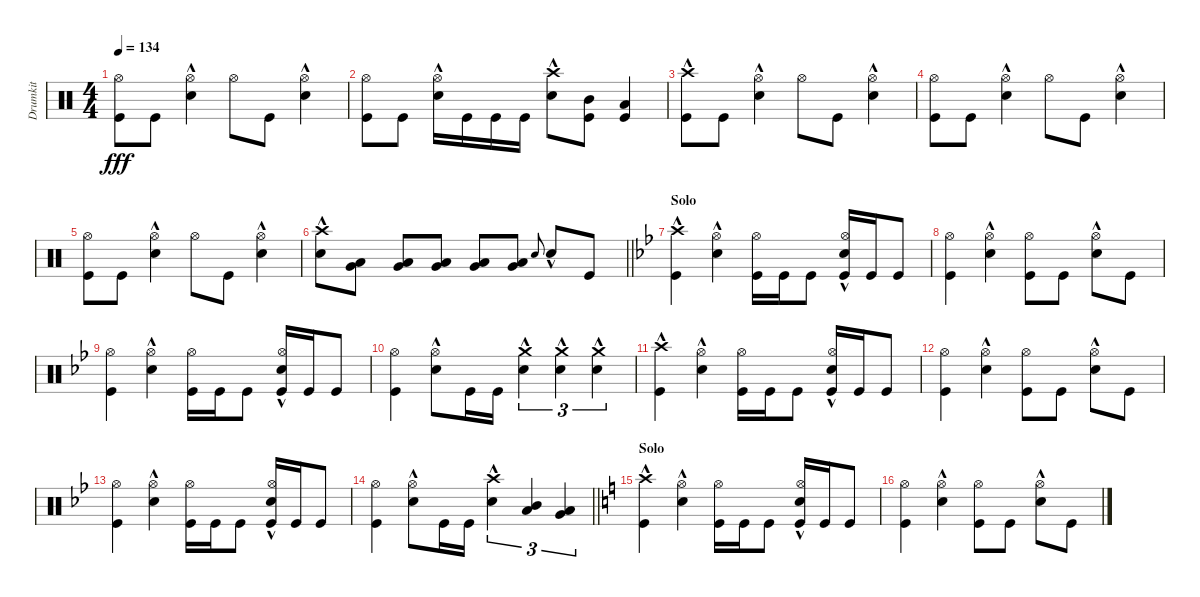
\track ("Drumkit" "Drumkit") {instrument percussion}
\staff {score}
\articulation defaults
\ts (4 4)
\tempo 134
\clef neutral
\ks c
("Kick (hit)" "Hi-Hat (open)").8{dy fff} "Kick (hit)".8 ("Snare (hit) 2"{hac} "Hi-Hat (open)").4 "Hi-Hat (open)".8 "Kick (hit)".8 ("Snare (hit) 2"{hac} "Hi-Hat (open)").4 |
("Kick (hit)" "Hi-Hat (open)").8 "Kick (hit)".8 ("Snare (hit) 2"{hac} "Hi-Hat (open)").16 "Kick (hit)".16 "Kick (hit)".16 "Kick (hit)".16 ("Snare (hit) 2"{hac} "Crash high (hit)"{hac}).8 ("Kick (hit)" "Mid Tom (hit)").8 ("Kick (hit)" "Low Tom (hit)").4 |
("Kick (hit)" "Crash high (hit)"{hac}).8 "Kick (hit)".8 ("Snare (hit) 2"{hac} "Hi-Hat (open)").4 "Hi-Hat (open)".8 "Kick (hit)".8 ("Snare (hit) 2"{hac} "Hi-Hat (open)").4 |
("Kick (hit)" "Hi-Hat (open)").8 "Kick (hit)".8 ("Snare (hit) 2"{hac} "Hi-Hat (open)").4 "Hi-Hat (open)".8 "Kick (hit)".8 ("Snare (hit) 2"{hac} "Hi-Hat (open)").4 |
("Kick (hit)" "Hi-Hat (open)").8 "Kick (hit)".8 ("Snare (hit) 2"{hac} "Hi-Hat (open)").4 "Hi-Hat (open)".8 "Kick (hit)".8 ("Snare (hit) 2"{hac} "Hi-Hat (open)").4 |
\barLineRight lightlight
("Snare (hit) 2"{hac} "Crash high (hit)"{hac}).8 ("Low Tom (hit)" "Very Low Tom (hit)").8 ("Low Tom (hit)" "Very Low Tom (hit)").8 ("Low Tom (hit)" "Very Low Tom (hit)").8 ("Very Low Tom (hit)" "Low Floor Tom (hit)").8 ("Very Low Tom (hit)" "Low Floor Tom (hit)").8 "Snare (hit)".8{gr onbeat} "Snare (hit) 2"{hac}.8 "Kick (hit)".8 |
\section ("" "Solo")
\ks gminor
("Kick (hit)" "Crash high (hit)"{hac}).4 ("Snare (hit) 2"{hac} "Hi-Hat (open)").4 ("Kick (hit)" "Hi-Hat (open)").16 "Kick (hit)".16 "Kick (hit)".8 ("Hi-Hat (open)" "Kick (hit)" "Snare (hit) 2"{hac}).16 "Kick (hit)".16 "Kick (hit)".8 |
("Kick (hit)" "Hi-Hat (open)").4 ("Snare (hit) 2"{hac} "Hi-Hat (open)").4 ("Kick (hit)" "Hi-Hat (open)").8 "Kick (hit)".8 ("Snare (hit) 2"{hac} "Hi-Hat (open)").8 "Kick (hit)".8 |
("Kick (hit)" "Hi-Hat (open)").4 ("Snare (hit) 2"{hac} "Hi-Hat (open)").4 ("Kick (hit)" "Hi-Hat (open)").16 "Kick (hit)".16 "Kick (hit)".8 ("Hi-Hat (open)" "Kick (hit)" "Snare (hit) 2"{hac}).16 "Kick (hit)".16 "Kick (hit)".8 |
("Kick (hit)" "Hi-Hat (open)").4 ("Snare (hit) 2"{hac} "Hi-Hat (open)").8 "Kick (hit)".16 "Kick (hit)".16 ("Snare (hit) 2"{hac} "Crash medium (hit)").4{tu (3 2)} ("Snare (hit) 2"{hac} "Crash medium (hit)").4{tu (3 2)} ("Snare (hit) 2"{hac} "Crash medium (hit)").4{tu (3 2)} |
("Kick (hit)" "Crash high (hit)"{hac}).4 ("Snare (hit) 2"{hac} "Hi-Hat (open)").4 ("Kick (hit)" "Hi-Hat (open)").16 "Kick (hit)".16 "Kick (hit)".8 ("Hi-Hat (open)" "Kick (hit)" "Snare (hit) 2"{hac}).16 "Kick (hit)".16 "Kick (hit)".8 |
("Kick (hit)" "Hi-Hat (open)").4 ("Snare (hit) 2"{hac} "Hi-Hat (open)").4 ("Kick (hit)" "Hi-Hat (open)").8 "Kick (hit)".8 ("Snare (hit) 2"{hac} "Hi-Hat (open)").8 "Kick (hit)".8 |
("Kick (hit)" "Hi-Hat (open)").4 ("Snare (hit) 2"{hac} "Hi-Hat (open)").4 ("Kick (hit)" "Hi-Hat (open)").16 "Kick (hit)".16 "Kick (hit)".8 ("Hi-Hat (open)" "Kick (hit)" "Snare (hit) 2"{hac}).16 "Kick (hit)".16 "Kick (hit)".8 |
\barLineRight lightlight
("Kick (hit)" "Hi-Hat (open)").4 ("Snare (hit) 2"{hac} "Hi-Hat (open)").8 "Kick (hit)".16 "Kick (hit)".16 ("Snare (hit) 2"{hac} "Crash high (hit)"{hac}).4{tu (3 2)} ("Mid Tom (hit)" "Low Tom (hit)").4{tu (3 2)} ("Low Tom (hit)" "Very Low Tom (hit)").4{tu (3 2)} |
\section ("" "Solo")
\ks aminor
("Kick (hit)" "Crash high (hit)"{hac}).4 ("Snare (hit) 2"{hac} "Hi-Hat (open)").4 ("Kick (hit)" "Hi-Hat (open)").16 "Kick (hit)".16 "Kick (hit)".8 ("Hi-Hat (open)" "Kick (hit)" "Snare (hit) 2"{hac}).16 "Kick (hit)".16 "Kick (hit)".8 |
("Kick (hit)" "Hi-Hat (open)").4 ("Snare (hit) 2"{hac} "Hi-Hat (open)").4 ("Kick (hit)" "Hi-Hat (open)").8 "Kick (hit)".8 ("Snare (hit) 2"{hac} "Hi-Hat (open)").8 "Kick (hit)".8
